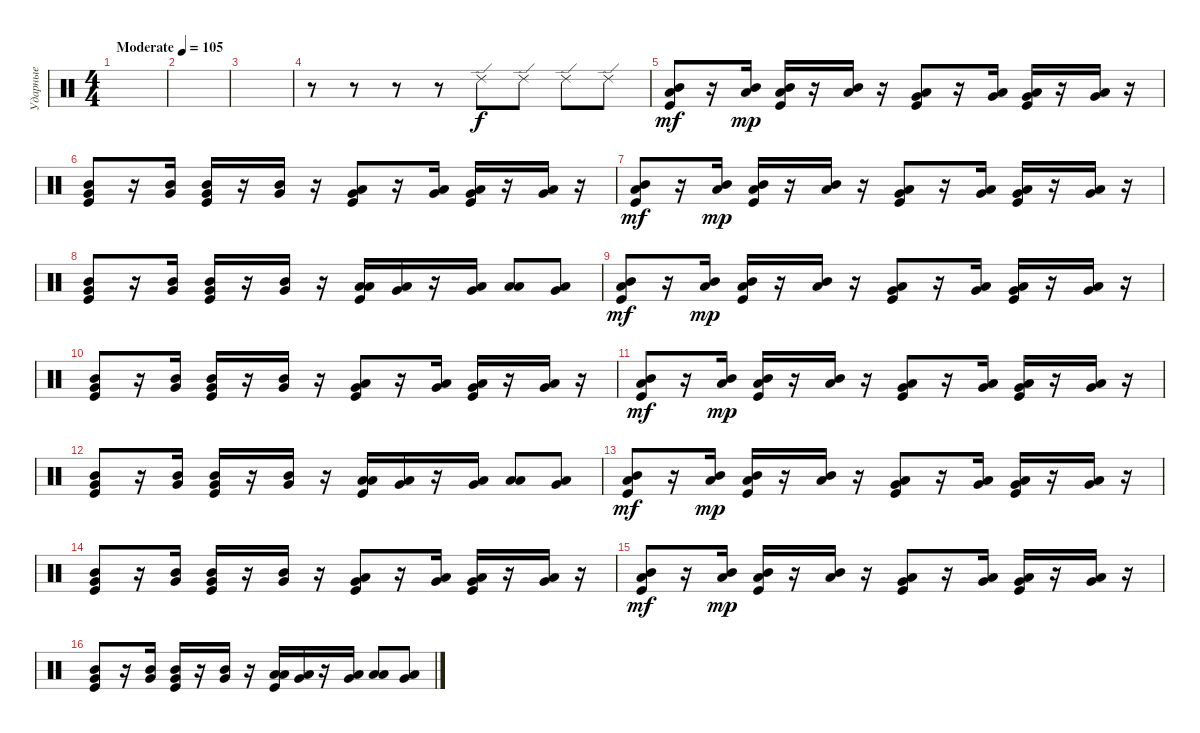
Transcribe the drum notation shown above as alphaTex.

\track ("Ударные" "Ударные") {instrument percussion}
\staff {score}
\articulation defaults
\ts (4 4)
\tempo (105 "Moderate")
\clef neutral
\ks c
|
|
|
r.8 r.8 r.8 r.8 "Ride (edge) 2".8 "Ride (edge) 2".8 "Ride (edge) 2".8 "Ride (edge) 2".8 |
("Mid Tom (hit)" "Low Tom (hit)" "Kick (hit)").8{dy mf} r.16 ("Mid Tom (hit)" "Low Tom (hit)").16{dy mp} ("Mid Tom (hit)" "Low Tom (hit)" "Kick (hit)").16 r.16 ("Mid Tom (hit)" "Low Tom (hit)").16 r.16 ("Low Tom (hit)" "Very Low Tom (hit)" "Kick (hit)").8 r.16 ("Low Tom (hit)" "Very Low Tom (hit)").16 ("Low Tom (hit)" "Very Low Tom (hit)" "Kick (hit)").16 r.16 ("Low Tom (hit)" "Very Low Tom (hit)").16 r.16 |
("Mid Tom (hit)" "Very Low Tom (hit)" "Kick (hit)").8 r.16 ("Mid Tom (hit)" "Very Low Tom (hit)").16 ("Mid Tom (hit)" "Very Low Tom (hit)" "Kick (hit)").16 r.16 ("Mid Tom (hit)" "Very Low Tom (hit)").16 r.16 ("Very Low Tom (hit)" "Low Floor Tom (hit)" "Kick (hit)").8 r.16 ("Very Low Tom (hit)" "Low Floor Tom (hit)").16 ("Very Low Tom (hit)" "Low Floor Tom (hit)" "Kick (hit)").16 r.16 ("Very Low Tom (hit)" "Low Floor Tom (hit)").16 r.16 |
("Mid Tom (hit)" "Low Tom (hit)" "Kick (hit)").8{dy mf} r.16 ("Mid Tom (hit)" "Low Tom (hit)").16{dy mp} ("Mid Tom (hit)" "Low Tom (hit)" "Kick (hit)").16 r.16 ("Mid Tom (hit)" "Low Tom (hit)").16 r.16 ("Low Tom (hit)" "Very Low Tom (hit)" "Kick (hit)").8 r.16 ("Low Tom (hit)" "Very Low Tom (hit)").16 ("Low Tom (hit)" "Very Low Tom (hit)" "Kick (hit)").16 r.16 ("Low Tom (hit)" "Very Low Tom (hit)").16 r.16 |
("Mid Tom (hit)" "Very Low Tom (hit)" "Kick (hit)").8 r.16 ("Mid Tom (hit)" "Very Low Tom (hit)").16 ("Mid Tom (hit)" "Very Low Tom (hit)" "Kick (hit)").16 r.16 ("Mid Tom (hit)" "Very Low Tom (hit)").16 r.16 ("Low Tom (hit)" "Low Floor Tom (hit)" "Kick (hit)").16 ("Very Low Tom (hit)" "Low Floor Tom (hit)").16 r.16 ("Very Low Tom (hit)" "Low Floor Tom (hit)").16 ("Low Tom (hit)" "Low Floor Tom (hit)").8 ("Very Low Tom (hit)" "Low Floor Tom (hit)").8 |
("Mid Tom (hit)" "Low Tom (hit)" "Kick (hit)").8{dy mf} r.16 ("Mid Tom (hit)" "Low Tom (hit)").16{dy mp} ("Mid Tom (hit)" "Low Tom (hit)" "Kick (hit)").16 r.16 ("Mid Tom (hit)" "Low Tom (hit)").16 r.16 ("Low Tom (hit)" "Very Low Tom (hit)" "Kick (hit)").8 r.16 ("Low Tom (hit)" "Very Low Tom (hit)").16 ("Low Tom (hit)" "Very Low Tom (hit)" "Kick (hit)").16 r.16 ("Low Tom (hit)" "Very Low Tom (hit)").16 r.16 |
("Mid Tom (hit)" "Very Low Tom (hit)" "Kick (hit)").8 r.16 ("Mid Tom (hit)" "Very Low Tom (hit)").16 ("Mid Tom (hit)" "Very Low Tom (hit)" "Kick (hit)").16 r.16 ("Mid Tom (hit)" "Very Low Tom (hit)").16 r.16 ("Very Low Tom (hit)" "Low Floor Tom (hit)" "Kick (hit)").8 r.16 ("Very Low Tom (hit)" "Low Floor Tom (hit)").16 ("Very Low Tom (hit)" "Low Floor Tom (hit)" "Kick (hit)").16 r.16 ("Very Low Tom (hit)" "Low Floor Tom (hit)").16 r.16 |
("Mid Tom (hit)" "Low Tom (hit)" "Kick (hit)").8{dy mf} r.16 ("Mid Tom (hit)" "Low Tom (hit)").16{dy mp} ("Mid Tom (hit)" "Low Tom (hit)" "Kick (hit)").16 r.16 ("Mid Tom (hit)" "Low Tom (hit)").16 r.16 ("Low Tom (hit)" "Very Low Tom (hit)" "Kick (hit)").8 r.16 ("Low Tom (hit)" "Very Low Tom (hit)").16 ("Low Tom (hit)" "Very Low Tom (hit)" "Kick (hit)").16 r.16 ("Low Tom (hit)" "Very Low Tom (hit)").16 r.16 |
("Mid Tom (hit)" "Very Low Tom (hit)" "Kick (hit)").8 r.16 ("Mid Tom (hit)" "Very Low Tom (hit)").16 ("Mid Tom (hit)" "Very Low Tom (hit)" "Kick (hit)").16 r.16 ("Mid Tom (hit)" "Very Low Tom (hit)").16 r.16 ("Low Tom (hit)" "Low Floor Tom (hit)" "Kick (hit)").16 ("Very Low Tom (hit)" "Low Floor Tom (hit)").16 r.16 ("Very Low Tom (hit)" "Low Floor Tom (hit)").16 ("Low Tom (hit)" "Low Floor Tom (hit)").8 ("Very Low Tom (hit)" "Low Floor Tom (hit)").8 |
("Mid Tom (hit)" "Low Tom (hit)" "Kick (hit)").8{dy mf} r.16 ("Mid Tom (hit)" "Low Tom (hit)").16{dy mp} ("Mid Tom (hit)" "Low Tom (hit)" "Kick (hit)").16 r.16 ("Mid Tom (hit)" "Low Tom (hit)").16 r.16 ("Low Tom (hit)" "Very Low Tom (hit)" "Kick (hit)").8 r.16 ("Low Tom (hit)" "Very Low Tom (hit)").16 ("Low Tom (hit)" "Very Low Tom (hit)" "Kick (hit)").16 r.16 ("Low Tom (hit)" "Very Low Tom (hit)").16 r.16 |
("Mid Tom (hit)" "Very Low Tom (hit)" "Kick (hit)").8 r.16 ("Mid Tom (hit)" "Very Low Tom (hit)").16 ("Mid Tom (hit)" "Very Low Tom (hit)" "Kick (hit)").16 r.16 ("Mid Tom (hit)" "Very Low Tom (hit)").16 r.16 ("Very Low Tom (hit)" "Low Floor Tom (hit)" "Kick (hit)").8 r.16 ("Very Low Tom (hit)" "Low Floor Tom (hit)").16 ("Very Low Tom (hit)" "Low Floor Tom (hit)" "Kick (hit)").16 r.16 ("Very Low Tom (hit)" "Low Floor Tom (hit)").16 r.16 |
("Mid Tom (hit)" "Low Tom (hit)" "Kick (hit)").8{dy mf} r.16 ("Mid Tom (hit)" "Low Tom (hit)").16{dy mp} ("Mid Tom (hit)" "Low Tom (hit)" "Kick (hit)").16 r.16 ("Mid Tom (hit)" "Low Tom (hit)").16 r.16 ("Low Tom (hit)" "Very Low Tom (hit)" "Kick (hit)").8 r.16 ("Low Tom (hit)" "Very Low Tom (hit)").16 ("Low Tom (hit)" "Very Low Tom (hit)" "Kick (hit)").16 r.16 ("Low Tom (hit)" "Very Low Tom (hit)").16 r.16 |
("Mid Tom (hit)" "Very Low Tom (hit)" "Kick (hit)").8 r.16 ("Mid Tom (hit)" "Very Low Tom (hit)").16 ("Mid Tom (hit)" "Very Low Tom (hit)" "Kick (hit)").16 r.16 ("Mid Tom (hit)" "Very Low Tom (hit)").16 r.16 ("Low Tom (hit)" "Low Floor Tom (hit)" "Kick (hit)").16 ("Very Low Tom (hit)" "Low Floor Tom (hit)").16 r.16 ("Very Low Tom (hit)" "Low Floor Tom (hit)").16 ("Low Tom (hit)" "Low Floor Tom (hit)").8 ("Very Low Tom (hit)" "Low Floor Tom (hit)").8
